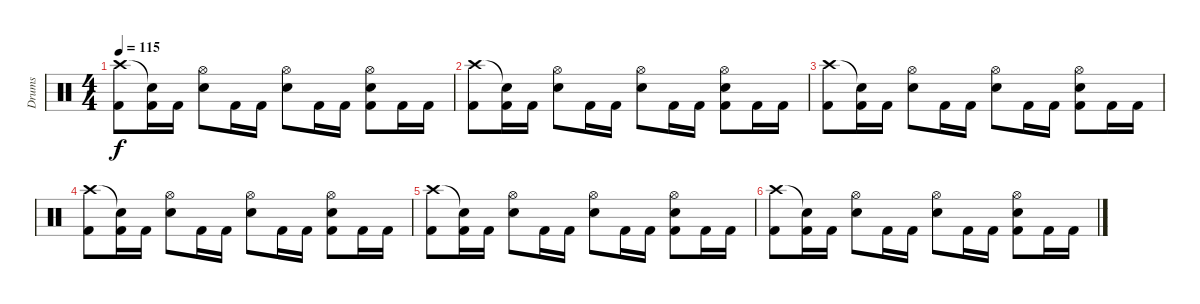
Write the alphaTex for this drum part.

\track ("Drums" "Drums") {instrument percussion}
\staff {score}
\articulation defaults
\ts (4 4)
\tempo 115
\clef neutral
\ks c
("Crash high (hit)" "Kick (hit) 2").8{dy f} ("Snare (hit)"{t} "Kick (hit) 2").16 "Kick (hit) 2".16 ("Hi-Hat (open)" "Snare (hit) 2").8 "Kick (hit) 2".16 "Kick (hit) 2".16 ("Hi-Hat (open)" "Snare (hit) 2").8 "Kick (hit) 2".16 "Kick (hit) 2".16 ("Hi-Hat (open)" "Snare (hit) 2" "Kick (hit) 2").8 "Kick (hit) 2".16 "Kick (hit) 2".16 |
("Crash high (hit)" "Kick (hit) 2").8 ("Snare (hit)"{t} "Kick (hit) 2").16 "Kick (hit) 2".16 ("Hi-Hat (open)" "Snare (hit) 2").8 "Kick (hit) 2".16 "Kick (hit) 2".16 ("Hi-Hat (open)" "Snare (hit) 2").8 "Kick (hit) 2".16 "Kick (hit) 2".16 ("Hi-Hat (open)" "Snare (hit) 2" "Kick (hit) 2").8 "Kick (hit) 2".16 "Kick (hit) 2".16 |
("Crash high (hit)" "Kick (hit) 2").8 ("Snare (hit)"{t} "Kick (hit) 2").16 "Kick (hit) 2".16 ("Hi-Hat (open)" "Snare (hit) 2").8 "Kick (hit) 2".16 "Kick (hit) 2".16 ("Hi-Hat (open)" "Snare (hit) 2").8 "Kick (hit) 2".16 "Kick (hit) 2".16 ("Hi-Hat (open)" "Snare (hit) 2" "Kick (hit) 2").8 "Kick (hit) 2".16 "Kick (hit) 2".16 |
("Crash high (hit)" "Kick (hit) 2").8 ("Snare (hit)"{t} "Kick (hit) 2").16 "Kick (hit) 2".16 ("Hi-Hat (open)" "Snare (hit) 2").8 "Kick (hit) 2".16 "Kick (hit) 2".16 ("Hi-Hat (open)" "Snare (hit) 2").8 "Kick (hit) 2".16 "Kick (hit) 2".16 ("Hi-Hat (open)" "Snare (hit) 2" "Kick (hit) 2").8 "Kick (hit) 2".16 "Kick (hit) 2".16 |
("Crash high (hit)" "Kick (hit) 2").8 ("Snare (hit)"{t} "Kick (hit) 2").16 "Kick (hit) 2".16 ("Hi-Hat (open)" "Snare (hit) 2").8 "Kick (hit) 2".16 "Kick (hit) 2".16 ("Hi-Hat (open)" "Snare (hit) 2").8 "Kick (hit) 2".16 "Kick (hit) 2".16 ("Hi-Hat (open)" "Snare (hit) 2" "Kick (hit) 2").8 "Kick (hit) 2".16 "Kick (hit) 2".16 |
("Crash high (hit)" "Kick (hit) 2").8 ("Snare (hit)"{t} "Kick (hit) 2").16 "Kick (hit) 2".16 ("Hi-Hat (open)" "Snare (hit) 2").8 "Kick (hit) 2".16 "Kick (hit) 2".16 ("Hi-Hat (open)" "Snare (hit) 2").8 "Kick (hit) 2".16 "Kick (hit) 2".16 ("Hi-Hat (open)" "Snare (hit) 2" "Kick (hit) 2").8 "Kick (hit) 2".16 "Kick (hit) 2".16
